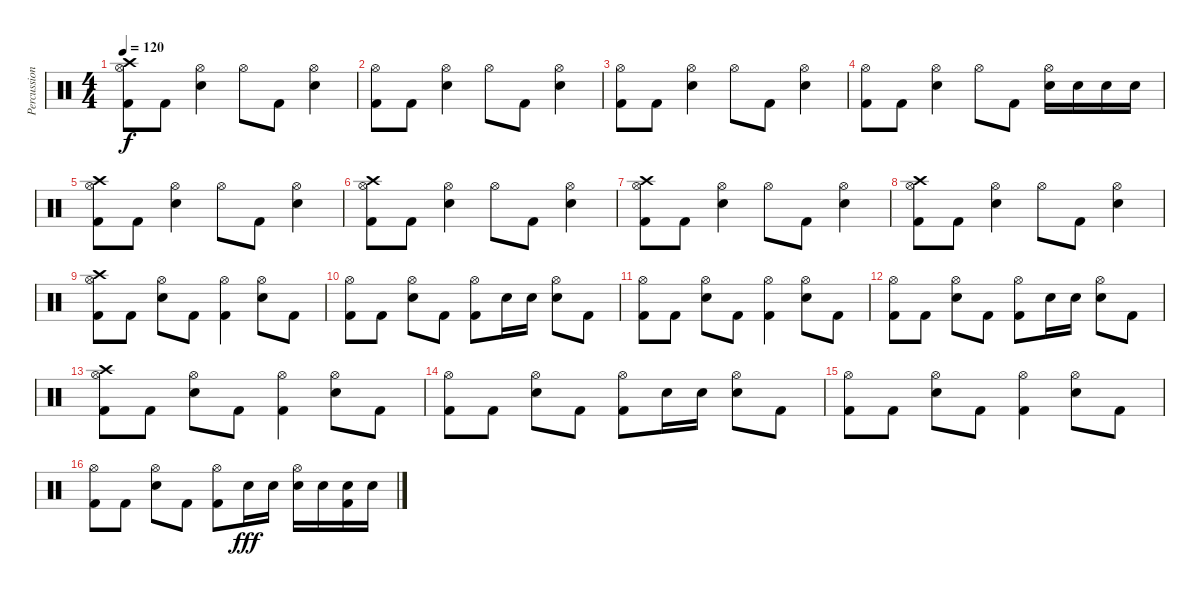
\track ("Percussion" "Percussion") {instrument percussion}
\staff {score}
\articulation defaults
\ts (4 4)
\tempo 120
\clef neutral
\ks c
("Crash high (hit)" "Kick (hit) 2" "Hi-Hat (open)").8{dy f} "Kick (hit) 2".8 ("Electric Snare (hit)" "Hi-Hat (open)").4 "Hi-Hat (open)".8 "Kick (hit) 2".8 ("Electric Snare (hit)" "Hi-Hat (open)").4 |
("Kick (hit) 2" "Hi-Hat (open)").8 "Kick (hit) 2".8 ("Electric Snare (hit)" "Hi-Hat (open)").4 "Hi-Hat (open)".8 "Kick (hit) 2".8 ("Electric Snare (hit)" "Hi-Hat (open)").4 |
("Kick (hit) 2" "Hi-Hat (open)").8 "Kick (hit) 2".8 ("Electric Snare (hit)" "Hi-Hat (open)").4 "Hi-Hat (open)".8 "Kick (hit) 2".8 ("Electric Snare (hit)" "Hi-Hat (open)").4 |
("Kick (hit) 2" "Hi-Hat (open)").8 "Kick (hit) 2".8 ("Electric Snare (hit)" "Hi-Hat (open)").4 "Hi-Hat (open)".8 "Kick (hit) 2".8 ("Electric Snare (hit)" "Hi-Hat (open)").16 "Electric Snare (hit)".16 "Electric Snare (hit)".16 "Electric Snare (hit)".16 |
("Crash high (hit)" "Kick (hit) 2" "Hi-Hat (open)").8 "Kick (hit) 2".8 ("Electric Snare (hit)" "Hi-Hat (open)").4 "Hi-Hat (open)".8 "Kick (hit) 2".8 ("Electric Snare (hit)" "Hi-Hat (open)").4 |
("Crash high (hit)" "Kick (hit) 2" "Hi-Hat (open)").8 "Kick (hit) 2".8 ("Electric Snare (hit)" "Hi-Hat (open)").4 "Hi-Hat (open)".8 "Kick (hit) 2".8 ("Electric Snare (hit)" "Hi-Hat (open)").4 |
("Crash high (hit)" "Kick (hit) 2" "Hi-Hat (open)").8 "Kick (hit) 2".8 ("Electric Snare (hit)" "Hi-Hat (open)").4 "Hi-Hat (open)".8 "Kick (hit) 2".8 ("Electric Snare (hit)" "Hi-Hat (open)").4 |
("Crash high (hit)" "Kick (hit) 2" "Hi-Hat (open)").8 "Kick (hit) 2".8 ("Electric Snare (hit)" "Hi-Hat (open)").4 "Hi-Hat (open)".8 "Kick (hit) 2".8 ("Electric Snare (hit)" "Hi-Hat (open)").4 |
("Kick (hit) 2" "Crash high (hit)" "Hi-Hat (open)").8 "Kick (hit) 2".8 ("Electric Snare (hit)" "Hi-Hat (open)").8 "Kick (hit) 2".8 ("Kick (hit) 2" "Hi-Hat (open)").4 ("Electric Snare (hit)" "Hi-Hat (open)").8 "Kick (hit) 2".8 |
("Kick (hit) 2" "Hi-Hat (open)").8 "Kick (hit) 2".8 ("Electric Snare (hit)" "Hi-Hat (open)").8 "Kick (hit) 2".8 ("Kick (hit) 2" "Hi-Hat (open)").8 "Electric Snare (hit)".16 "Electric Snare (hit)".16 ("Electric Snare (hit)" "Hi-Hat (open)").8 "Kick (hit) 2".8 |
("Kick (hit) 2" "Hi-Hat (open)").8 "Kick (hit) 2".8 ("Electric Snare (hit)" "Hi-Hat (open)").8 "Kick (hit) 2".8 ("Kick (hit) 2" "Hi-Hat (open)").4 ("Electric Snare (hit)" "Hi-Hat (open)").8 "Kick (hit) 2".8 |
("Kick (hit) 2" "Hi-Hat (open)").8 "Kick (hit) 2".8 ("Electric Snare (hit)" "Hi-Hat (open)").8 "Kick (hit) 2".8 ("Kick (hit) 2" "Hi-Hat (open)").8 "Electric Snare (hit)".16 "Electric Snare (hit)".16 ("Electric Snare (hit)" "Hi-Hat (open)").8 "Kick (hit) 2".8 |
("Kick (hit) 2" "Crash high (hit)" "Hi-Hat (open)").8 "Kick (hit) 2".8 ("Electric Snare (hit)" "Hi-Hat (open)").8 "Kick (hit) 2".8 ("Kick (hit) 2" "Hi-Hat (open)").4 ("Electric Snare (hit)" "Hi-Hat (open)").8 "Kick (hit) 2".8 |
("Kick (hit) 2" "Hi-Hat (open)").8 "Kick (hit) 2".8 ("Electric Snare (hit)" "Hi-Hat (open)").8 "Kick (hit) 2".8 ("Kick (hit) 2" "Hi-Hat (open)").8 "Electric Snare (hit)".16 "Electric Snare (hit)".16 ("Electric Snare (hit)" "Hi-Hat (open)").8 "Kick (hit) 2".8 |
("Kick (hit) 2" "Hi-Hat (open)").8 "Kick (hit) 2".8 ("Electric Snare (hit)" "Hi-Hat (open)").8 "Kick (hit) 2".8 ("Kick (hit) 2" "Hi-Hat (open)").4 ("Electric Snare (hit)" "Hi-Hat (open)").8 "Kick (hit) 2".8 |
("Kick (hit) 2" "Hi-Hat (open)").8 "Kick (hit) 2".8 ("Electric Snare (hit)" "Hi-Hat (open)").8 "Kick (hit) 2".8 ("Kick (hit) 2" "Hi-Hat (open)").8 "Electric Snare (hit)".16{dy fff} "Electric Snare (hit)".16 ("Electric Snare (hit)" "Hi-Hat (open)").16 "Electric Snare (hit)".16 ("Kick (hit) 2" "Electric Snare (hit)").16 "Electric Snare (hit)".16
